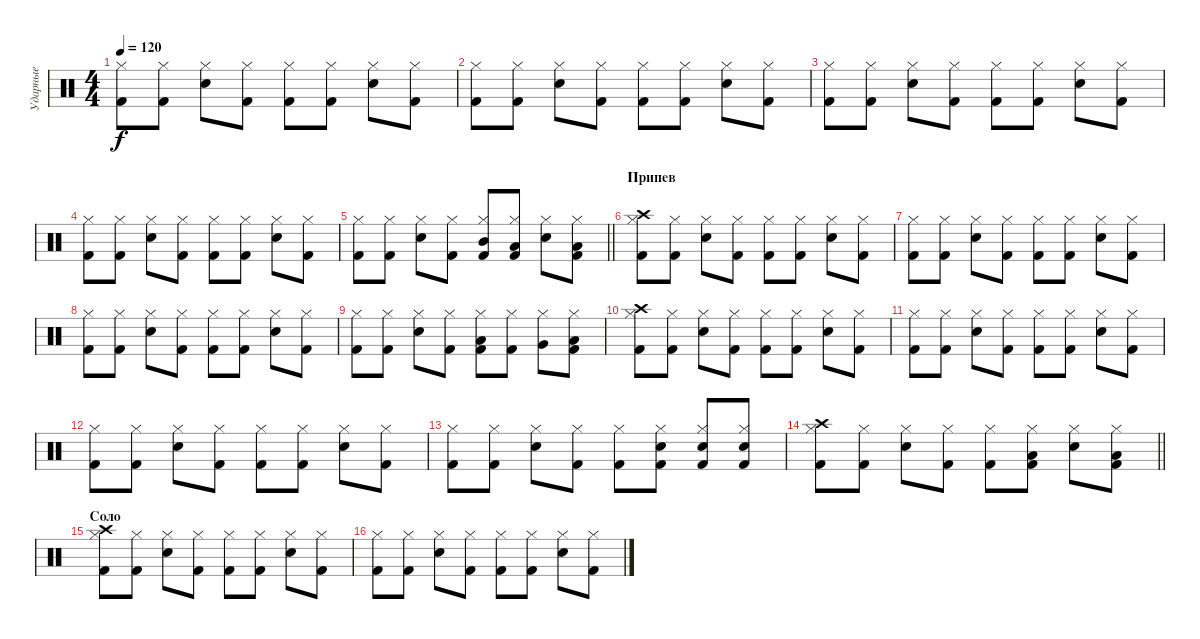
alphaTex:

\track ("Ударные" "Ударные") {instrument percussion}
\staff {score}
\articulation defaults
\ts (4 4)
\tempo 120
\clef neutral
\ks c
("Kick (hit) 2" "Hi-Hat (closed)").8{dy f} ("Kick (hit) 2" "Hi-Hat (closed)").8 ("Snare (hit) 2" "Hi-Hat (closed)").8 ("Kick (hit) 2" "Hi-Hat (closed)").8 ("Kick (hit) 2" "Hi-Hat (closed)").8 ("Kick (hit) 2" "Hi-Hat (closed)").8 ("Snare (hit) 2" "Hi-Hat (closed)").8 ("Kick (hit) 2" "Hi-Hat (closed)").8 |
("Kick (hit) 2" "Hi-Hat (closed)").8 ("Kick (hit) 2" "Hi-Hat (closed)").8 ("Snare (hit) 2" "Hi-Hat (closed)").8 ("Kick (hit) 2" "Hi-Hat (closed)").8 ("Kick (hit) 2" "Hi-Hat (closed)").8 ("Kick (hit) 2" "Hi-Hat (closed)").8 ("Snare (hit) 2" "Hi-Hat (closed)").8 ("Kick (hit) 2" "Hi-Hat (closed)").8 |
("Kick (hit) 2" "Hi-Hat (closed)").8 ("Kick (hit) 2" "Hi-Hat (closed)").8 ("Snare (hit) 2" "Hi-Hat (closed)").8 ("Kick (hit) 2" "Hi-Hat (closed)").8 ("Kick (hit) 2" "Hi-Hat (closed)").8 ("Kick (hit) 2" "Hi-Hat (closed)").8 ("Snare (hit) 2" "Hi-Hat (closed)").8 ("Kick (hit) 2" "Hi-Hat (closed)").8 |
("Kick (hit) 2" "Hi-Hat (closed)").8 ("Kick (hit) 2" "Hi-Hat (closed)").8 ("Snare (hit) 2" "Hi-Hat (closed)").8 ("Kick (hit) 2" "Hi-Hat (closed)").8 ("Kick (hit) 2" "Hi-Hat (closed)").8 ("Kick (hit) 2" "Hi-Hat (closed)").8 ("Snare (hit) 2" "Hi-Hat (closed)").8 ("Kick (hit) 2" "Hi-Hat (closed)").8 |
\barLineRight lightlight
("Kick (hit) 2" "Hi-Hat (closed)").8 ("Kick (hit) 2" "Hi-Hat (closed)").8 ("Snare (hit) 2" "Hi-Hat (closed)").8 ("Kick (hit) 2" "Hi-Hat (closed)").8 ("Kick (hit) 2" "Hi-Hat (closed)" "Mid Tom (hit)").8 ("Kick (hit) 2" "Hi-Hat (closed)" "Low Floor Tom (hit)").8 ("Snare (hit) 2" "Hi-Hat (closed)").8 ("Kick (hit) 2" "Hi-Hat (closed)" "Low Tom (hit)").8 |
\section ("" "Припев")
("Kick (hit) 2" "Hi-Hat (closed)" "Crash high (hit)").8 ("Kick (hit) 2" "Hi-Hat (closed)").8 ("Snare (hit) 2" "Hi-Hat (closed)").8 ("Kick (hit) 2" "Hi-Hat (closed)").8 ("Kick (hit) 2" "Hi-Hat (closed)").8 ("Kick (hit) 2" "Hi-Hat (closed)").8 ("Snare (hit) 2" "Hi-Hat (closed)").8 ("Kick (hit) 2" "Hi-Hat (closed)").8 |
("Kick (hit) 2" "Hi-Hat (closed)").8 ("Kick (hit) 2" "Hi-Hat (closed)").8 ("Snare (hit) 2" "Hi-Hat (closed)").8 ("Kick (hit) 2" "Hi-Hat (closed)").8 ("Kick (hit) 2" "Hi-Hat (closed)").8 ("Kick (hit) 2" "Hi-Hat (closed)").8 ("Snare (hit) 2" "Hi-Hat (closed)").8 ("Kick (hit) 2" "Hi-Hat (closed)").8 |
("Kick (hit) 2" "Hi-Hat (closed)").8 ("Kick (hit) 2" "Hi-Hat (closed)").8 ("Snare (hit) 2" "Hi-Hat (closed)").8 ("Kick (hit) 2" "Hi-Hat (closed)").8 ("Kick (hit) 2" "Hi-Hat (closed)").8 ("Kick (hit) 2" "Hi-Hat (closed)").8 ("Snare (hit) 2" "Hi-Hat (closed)").8 ("Kick (hit) 2" "Hi-Hat (closed)").8 |
("Kick (hit) 2" "Hi-Hat (closed)").8 ("Kick (hit) 2" "Hi-Hat (closed)").8 ("Snare (hit) 2" "Hi-Hat (closed)").8 ("Kick (hit) 2" "Hi-Hat (closed)").8 ("Kick (hit) 2" "Hi-Hat (closed)" "Low Tom (hit)").8 ("Kick (hit) 2" "Hi-Hat (closed)").8 ("Hi-Hat (closed)" "Very Low Tom (hit)").8 ("Kick (hit) 2" "Hi-Hat (closed)" "Low Floor Tom (hit)").8 |
("Kick (hit) 2" "Hi-Hat (closed)" "Crash high (hit)").8 ("Kick (hit) 2" "Hi-Hat (closed)").8 ("Snare (hit) 2" "Hi-Hat (closed)").8 ("Kick (hit) 2" "Hi-Hat (closed)").8 ("Kick (hit) 2" "Hi-Hat (closed)").8 ("Kick (hit) 2" "Hi-Hat (closed)").8 ("Snare (hit) 2" "Hi-Hat (closed)").8 ("Kick (hit) 2" "Hi-Hat (closed)").8 |
("Kick (hit) 2" "Hi-Hat (closed)").8 ("Kick (hit) 2" "Hi-Hat (closed)").8 ("Snare (hit) 2" "Hi-Hat (closed)").8 ("Kick (hit) 2" "Hi-Hat (closed)").8 ("Kick (hit) 2" "Hi-Hat (closed)").8 ("Kick (hit) 2" "Hi-Hat (closed)").8 ("Snare (hit) 2" "Hi-Hat (closed)").8 ("Kick (hit) 2" "Hi-Hat (closed)").8 |
("Kick (hit) 2" "Hi-Hat (closed)").8 ("Kick (hit) 2" "Hi-Hat (closed)").8 ("Snare (hit) 2" "Hi-Hat (closed)").8 ("Kick (hit) 2" "Hi-Hat (closed)").8 ("Kick (hit) 2" "Hi-Hat (closed)").8 ("Kick (hit) 2" "Hi-Hat (closed)").8 ("Snare (hit) 2" "Hi-Hat (closed)").8 ("Kick (hit) 2" "Hi-Hat (closed)").8 |
("Kick (hit) 2" "Hi-Hat (closed)").8 ("Kick (hit) 2" "Hi-Hat (closed)").8 ("Snare (hit) 2" "Hi-Hat (closed)").8 ("Kick (hit) 2" "Hi-Hat (closed)").8 ("Kick (hit) 2" "Hi-Hat (closed)").8 ("Kick (hit) 2" "Hi-Hat (closed)" "Snare (hit) 2").8 ("Snare (hit) 2" "Hi-Hat (closed)" "Kick (hit) 2").8 ("Kick (hit) 2" "Hi-Hat (closed)" "Snare (hit) 2").8 |
\barLineRight lightlight
("Kick (hit) 2" "Hi-Hat (closed)" "Crash high (hit)").8 ("Kick (hit) 2" "Hi-Hat (closed)").8 ("Snare (hit) 2" "Hi-Hat (closed)").8 ("Kick (hit) 2" "Hi-Hat (closed)").8 ("Kick (hit) 2" "Hi-Hat (closed)").8 ("Kick (hit) 2" "Hi-Hat (closed)" "Low Tom (hit)").8 ("Snare (hit) 2" "Hi-Hat (closed)").8 ("Kick (hit) 2" "Hi-Hat (closed)" "Low Floor Tom (hit)").8 |
\section ("" "Соло")
("Kick (hit) 2" "Hi-Hat (closed)" "Crash high (hit)").8 ("Kick (hit) 2" "Hi-Hat (closed)").8 ("Snare (hit) 2" "Hi-Hat (closed)").8 ("Kick (hit) 2" "Hi-Hat (closed)").8 ("Kick (hit) 2" "Hi-Hat (closed)").8 ("Kick (hit) 2" "Hi-Hat (closed)").8 ("Snare (hit) 2" "Hi-Hat (closed)").8 ("Kick (hit) 2" "Hi-Hat (closed)").8 |
("Kick (hit) 2" "Hi-Hat (closed)").8 ("Kick (hit) 2" "Hi-Hat (closed)").8 ("Snare (hit) 2" "Hi-Hat (closed)").8 ("Kick (hit) 2" "Hi-Hat (closed)").8 ("Kick (hit) 2" "Hi-Hat (closed)").8 ("Kick (hit) 2" "Hi-Hat (closed)").8 ("Snare (hit) 2" "Hi-Hat (closed)").8 ("Kick (hit) 2" "Hi-Hat (closed)").8
